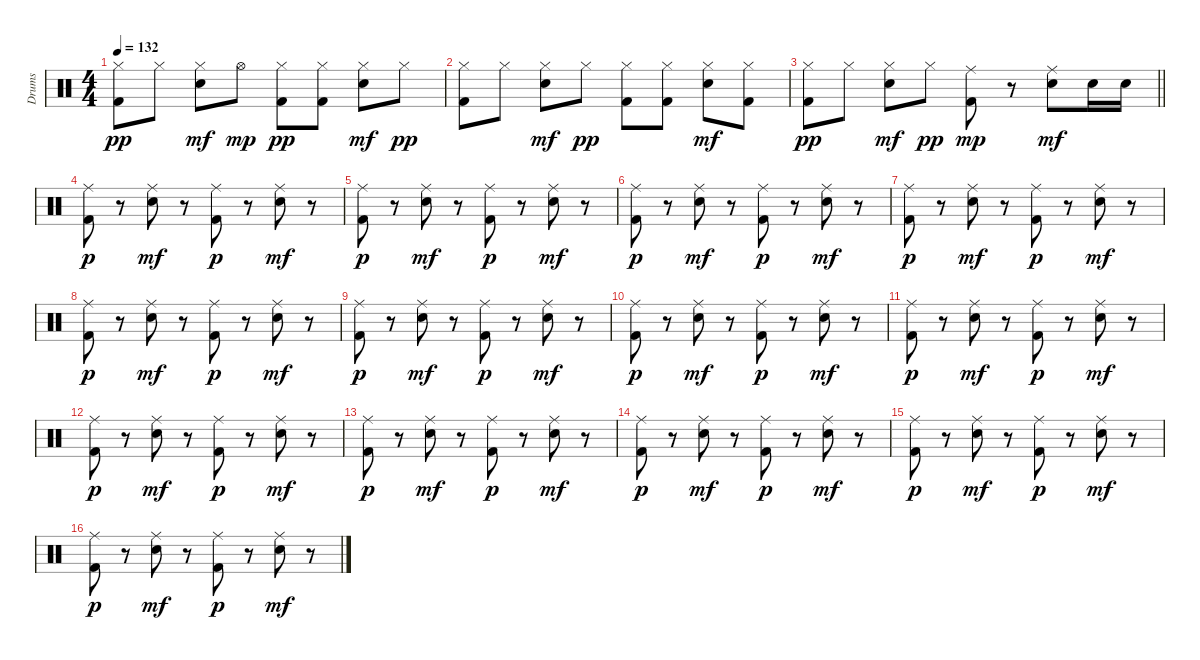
\track ("Drums" "Drums") {instrument percussion}
\staff {score}
\articulation defaults
\ts (4 4)
\tempo 132
\clef neutral
\ks c
("Hi-Hat (closed)" "Kick (hit) 2").8{dy pp} "Hi-Hat (closed)".8 ("Hi-Hat (closed)" "Snare (hit) 2").8{dy mf} "Hi-Hat (open)".8{dy mp} ("Hi-Hat (closed)" "Kick (hit) 2").8{dy pp} ("Hi-Hat (closed)" "Kick (hit) 2").8 ("Hi-Hat (closed)" "Snare (hit) 2").8{dy mf} "Hi-Hat (closed)".8{dy pp} |
("Hi-Hat (closed)" "Kick (hit) 2").8 "Hi-Hat (closed)".8 ("Hi-Hat (closed)" "Snare (hit) 2").8{dy mf} "Hi-Hat (closed)".8{dy pp} ("Hi-Hat (closed)" "Kick (hit) 2").8 ("Hi-Hat (closed)" "Kick (hit) 2").8 ("Hi-Hat (closed)" "Snare (hit) 2").8{dy mf} ("Hi-Hat (closed)" "Kick (hit) 2").8 |
\barLineRight lightlight
("Hi-Hat (closed)" "Kick (hit) 2").8{dy pp} "Hi-Hat (closed)".8 ("Hi-Hat (closed)" "Snare (hit) 2").8{dy mf} "Hi-Hat (closed)".8{dy pp} ("Ride (middle)" "Kick (hit) 2").8{dy mp} r.8 ("Ride (middle)" "Snare (hit) 2").8{dy mf} "Snare (hit) 2".16 "Snare (hit) 2".16 |
\section ("" "")
("Ride (middle)" "Kick (hit) 2").8{dy p} r.8 ("Ride (middle)" "Snare (hit) 2").8{dy mf} r.8 ("Ride (middle)" "Kick (hit) 2").8{dy p} r.8 ("Ride (middle)" "Snare (hit) 2").8{dy mf} r.8 |
("Ride (middle)" "Kick (hit) 2").8{dy p} r.8 ("Ride (middle)" "Snare (hit) 2").8{dy mf} r.8 ("Ride (middle)" "Kick (hit) 2").8{dy p} r.8 ("Ride (middle)" "Snare (hit) 2").8{dy mf} r.8 |
("Ride (middle)" "Kick (hit) 2").8{dy p} r.8 ("Ride (middle)" "Snare (hit) 2").8{dy mf} r.8 ("Ride (middle)" "Kick (hit) 2").8{dy p} r.8 ("Ride (middle)" "Snare (hit) 2").8{dy mf} r.8 |
("Ride (middle)" "Kick (hit) 2").8{dy p} r.8 ("Ride (middle)" "Snare (hit) 2").8{dy mf} r.8 ("Ride (middle)" "Kick (hit) 2").8{dy p} r.8 ("Ride (middle)" "Snare (hit) 2").8{dy mf} r.8 |
("Ride (middle)" "Kick (hit) 2").8{dy p} r.8 ("Ride (middle)" "Snare (hit) 2").8{dy mf} r.8 ("Ride (middle)" "Kick (hit) 2").8{dy p} r.8 ("Ride (middle)" "Snare (hit) 2").8{dy mf} r.8 |
("Ride (middle)" "Kick (hit) 2").8{dy p} r.8 ("Ride (middle)" "Snare (hit) 2").8{dy mf} r.8 ("Ride (middle)" "Kick (hit) 2").8{dy p} r.8 ("Ride (middle)" "Snare (hit) 2").8{dy mf} r.8 |
("Ride (middle)" "Kick (hit) 2").8{dy p} r.8 ("Ride (middle)" "Snare (hit) 2").8{dy mf} r.8 ("Ride (middle)" "Kick (hit) 2").8{dy p} r.8 ("Ride (middle)" "Snare (hit) 2").8{dy mf} r.8 |
("Ride (middle)" "Kick (hit) 2").8{dy p} r.8 ("Ride (middle)" "Snare (hit) 2").8{dy mf} r.8 ("Ride (middle)" "Kick (hit) 2").8{dy p} r.8 ("Ride (middle)" "Snare (hit) 2").8{dy mf} r.8 |
("Ride (middle)" "Kick (hit) 2").8{dy p} r.8 ("Ride (middle)" "Snare (hit) 2").8{dy mf} r.8 ("Ride (middle)" "Kick (hit) 2").8{dy p} r.8 ("Ride (middle)" "Snare (hit) 2").8{dy mf} r.8 |
("Ride (middle)" "Kick (hit) 2").8{dy p} r.8 ("Ride (middle)" "Snare (hit) 2").8{dy mf} r.8 ("Ride (middle)" "Kick (hit) 2").8{dy p} r.8 ("Ride (middle)" "Snare (hit) 2").8{dy mf} r.8 |
("Ride (middle)" "Kick (hit) 2").8{dy p} r.8 ("Ride (middle)" "Snare (hit) 2").8{dy mf} r.8 ("Ride (middle)" "Kick (hit) 2").8{dy p} r.8 ("Ride (middle)" "Snare (hit) 2").8{dy mf} r.8 |
("Ride (middle)" "Kick (hit) 2").8{dy p} r.8 ("Ride (middle)" "Snare (hit) 2").8{dy mf} r.8 ("Ride (middle)" "Kick (hit) 2").8{dy p} r.8 ("Ride (middle)" "Snare (hit) 2").8{dy mf} r.8 |
("Ride (middle)" "Kick (hit) 2").8{dy p} r.8 ("Ride (middle)" "Snare (hit) 2").8{dy mf} r.8 ("Ride (middle)" "Kick (hit) 2").8{dy p} r.8 ("Ride (middle)" "Snare (hit) 2").8{dy mf} r.8
